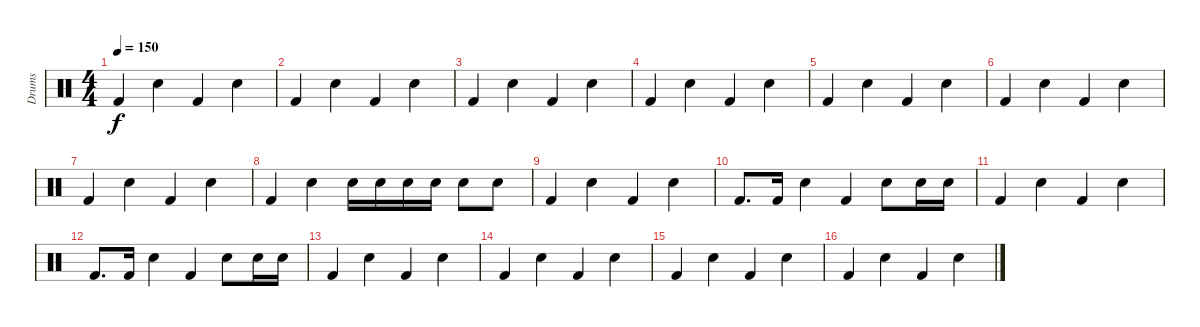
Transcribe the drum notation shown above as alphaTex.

\track ("Drums" "Drums") {instrument percussion}
\staff {score}
\articulation defaults
\ts (4 4)
\tempo 150
\clef neutral
\ks c "Kick (hit) 2".4{dy f} "Electric Snare (hit)".4 "Kick (hit) 2".4 "Electric Snare (hit)".4
|
"Kick (hit) 2".4 "Electric Snare (hit)".4 "Kick (hit) 2".4 "Electric Snare (hit)".4 |
"Kick (hit) 2".4 "Electric Snare (hit)".4 "Kick (hit) 2".4 "Electric Snare (hit)".4 |
"Kick (hit) 2".4 "Electric Snare (hit)".4 "Kick (hit) 2".4 "Electric Snare (hit)".4 |
"Kick (hit) 2".4 "Electric Snare (hit)".4 "Kick (hit) 2".4 "Electric Snare (hit)".4 |
"Kick (hit) 2".4 "Electric Snare (hit)".4 "Kick (hit) 2".4 "Electric Snare (hit)".4 |
"Kick (hit) 2".4 "Electric Snare (hit)".4 "Kick (hit) 2".4 "Electric Snare (hit)".4 |
"Kick (hit) 2".4 "Electric Snare (hit)".4 "Electric Snare (hit)".16 "Electric Snare (hit)".16 "Electric Snare (hit)".16 "Electric Snare (hit)".16 "Electric Snare (hit)".8 "Electric Snare (hit)".8 |
"Kick (hit) 2".4 "Electric Snare (hit)".4 "Kick (hit) 2".4 "Electric Snare (hit)".4 |
"Kick (hit) 2".8{d} "Kick (hit) 2".16 "Electric Snare (hit)".4 "Kick (hit) 2".4 "Electric Snare (hit)".8 "Electric Snare (hit)".16 "Electric Snare (hit)".16 |
"Kick (hit) 2".4 "Electric Snare (hit)".4 "Kick (hit) 2".4 "Electric Snare (hit)".4 |
"Kick (hit) 2".8{d} "Kick (hit) 2".16 "Electric Snare (hit)".4 "Kick (hit) 2".4 "Electric Snare (hit)".8 "Electric Snare (hit)".16 "Electric Snare (hit)".16 |
"Kick (hit) 2".4 "Electric Snare (hit)".4 "Kick (hit) 2".4 "Electric Snare (hit)".4 |
"Kick (hit) 2".4 "Electric Snare (hit)".4 "Kick (hit) 2".4 "Electric Snare (hit)".4 |
"Kick (hit) 2".4 "Electric Snare (hit)".4 "Kick (hit) 2".4 "Electric Snare (hit)".4 |
"Kick (hit) 2".4 "Electric Snare (hit)".4 "Kick (hit) 2".4 "Electric Snare (hit)".4
